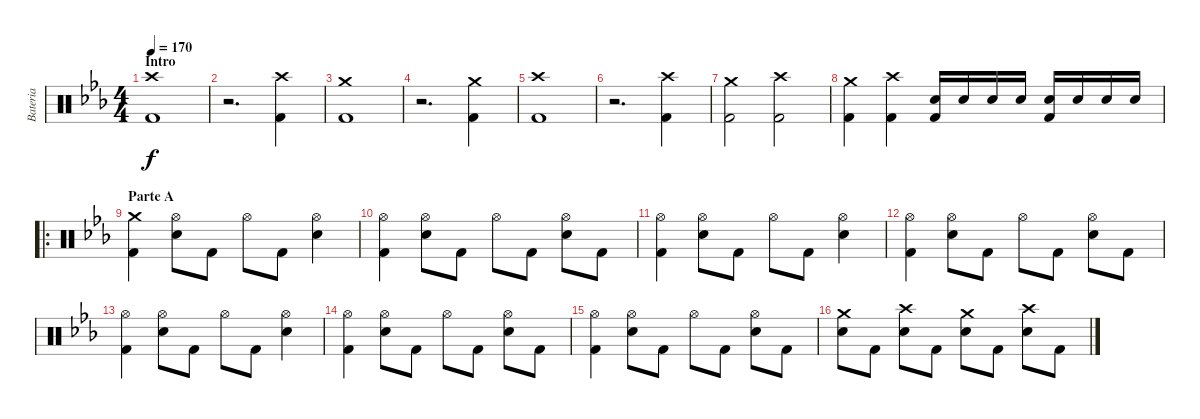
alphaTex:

\track ("Bateria" "Bateria") {instrument percussion}
\staff {score}
\articulation defaults
\ts (4 4)
\section ("" "Intro")
\tempo 170
\clef neutral
\ks cminor
("Crash high (hit)" "Kick (hit) 2").1{dy f} |
r.2{d} ("Crash high (hit)" "Kick (hit) 2").4 |
("Crash medium (hit)" "Kick (hit) 2").1 |
r.2{d} ("Crash medium (hit)" "Kick (hit) 2").4 |
("Crash high (hit)" "Kick (hit) 2").1 |
r.2{d} ("Crash high (hit)" "Kick (hit) 2").4 |
("Crash medium (hit)" "Kick (hit) 2").2 ("Crash high (hit)" "Kick (hit) 2").2 |
("Crash medium (hit)" "Kick (hit) 2").4 ("Crash high (hit)" "Kick (hit) 2").4 ("Electric Snare (hit)" "Kick (hit) 2").16 "Electric Snare (hit)".16 "Electric Snare (hit)".16 "Electric Snare (hit)".16 ("Electric Snare (hit)" "Kick (hit) 2").16 "Electric Snare (hit)".16 "Electric Snare (hit)".16 "Electric Snare (hit)".16 |
\ro
\section ("" "Parte A")
("Crash medium (hit)" "Kick (hit) 2").4 ("Hi-Hat (open)" "Electric Snare (hit)").8 "Kick (hit) 2".8 "Hi-Hat (open)".8 "Kick (hit) 2".8 ("Hi-Hat (open)" "Electric Snare (hit)").4 |
("Hi-Hat (open)" "Kick (hit) 2").4 ("Hi-Hat (open)" "Electric Snare (hit)").8 "Kick (hit) 2".8 "Hi-Hat (open)".8 "Kick (hit) 2".8 ("Hi-Hat (open)" "Electric Snare (hit)").8 "Kick (hit) 2".8 |
("Hi-Hat (open)" "Kick (hit) 2").4 ("Hi-Hat (open)" "Electric Snare (hit)").8 "Kick (hit) 2".8 "Hi-Hat (open)".8 "Kick (hit) 2".8 ("Hi-Hat (open)" "Electric Snare (hit)").4 |
("Hi-Hat (open)" "Kick (hit) 2").4 ("Hi-Hat (open)" "Electric Snare (hit)").8 "Kick (hit) 2".8 "Hi-Hat (open)".8 "Kick (hit) 2".8 ("Hi-Hat (open)" "Electric Snare (hit)").8 "Kick (hit) 2".8 |
("Hi-Hat (open)" "Kick (hit) 2").4 ("Hi-Hat (open)" "Electric Snare (hit)").8 "Kick (hit) 2".8 "Hi-Hat (open)".8 "Kick (hit) 2".8 ("Hi-Hat (open)" "Electric Snare (hit)").4 |
("Hi-Hat (open)" "Kick (hit) 2").4 ("Hi-Hat (open)" "Electric Snare (hit)").8 "Kick (hit) 2".8 "Hi-Hat (open)".8 "Kick (hit) 2".8 ("Hi-Hat (open)" "Electric Snare (hit)").8 "Kick (hit) 2".8 |
("Hi-Hat (open)" "Kick (hit) 2").4 ("Hi-Hat (open)" "Electric Snare (hit)").8 "Kick (hit) 2".8 "Hi-Hat (open)".8 "Kick (hit) 2".8 ("Hi-Hat (open)" "Electric Snare (hit)").8 "Kick (hit) 2".8 |
("Crash medium (hit)" "Electric Snare (hit)").8 "Kick (hit) 2".8 ("Crash high (hit)" "Electric Snare (hit)").8 "Kick (hit) 2".8 ("Crash medium (hit)" "Electric Snare (hit)").8 "Kick (hit) 2".8 ("Crash high (hit)" "Electric Snare (hit)").8 "Kick (hit) 2".8
